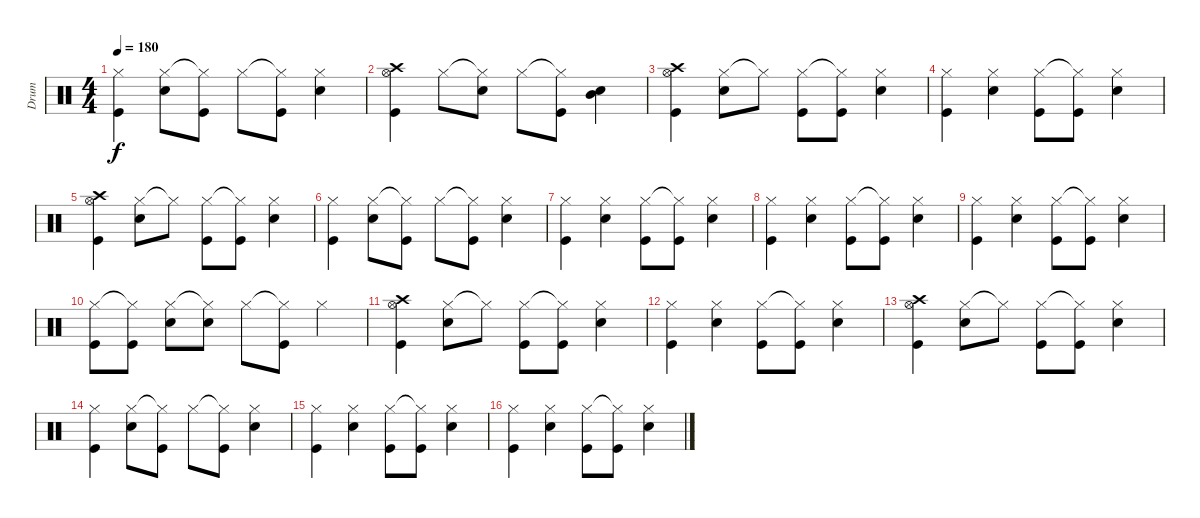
\track ("Drum" "Drum") {instrument percussion}
\staff {score}
\articulation defaults
\ts (4 4)
\tempo 180
\clef neutral
\ks c
("Hi-Hat (closed)" "Kick (hit)").4{dy f} ("Hi-Hat (closed)" "Snare (hit) 2").8 ("Hi-Hat (closed)"{t} "Kick (hit)").8 "Hi-Hat (closed)".8 ("Hi-Hat (closed)"{t} "Kick (hit)").8 ("Hi-Hat (closed)" "Snare (hit) 2").4 |
("Crash high (hit)" "Hi-Hat (open)" "Kick (hit)").4 "Hi-Hat (closed)".8 ("Hi-Hat (closed)"{t} "Snare (hit) 2").8 "Hi-Hat (closed)".8 ("Hi-Hat (closed)"{t} "Kick (hit)").8 ("Snare (hit) 2" "Mid Tom (hit)").4 |
("Crash high (hit)" "Hi-Hat (open)" "Kick (hit)").4 ("Hi-Hat (closed)" "Snare (hit) 2").8 "Hi-Hat (closed)"{t}.8 ("Hi-Hat (closed)" "Kick (hit)").8 ("Hi-Hat (closed)"{t} "Kick (hit)").8 ("Hi-Hat (closed)" "Snare (hit) 2").4 |
("Hi-Hat (closed)" "Kick (hit)").4 ("Hi-Hat (closed)" "Snare (hit) 2").4 ("Hi-Hat (closed)" "Kick (hit)").8 ("Hi-Hat (closed)"{t} "Kick (hit)").8 ("Hi-Hat (closed)" "Snare (hit) 2").4 |
("Crash high (hit)" "Hi-Hat (open)" "Kick (hit)").4 ("Hi-Hat (closed)" "Snare (hit) 2").8 "Hi-Hat (closed)"{t}.8 ("Hi-Hat (closed)" "Kick (hit)").8 ("Hi-Hat (closed)"{t} "Kick (hit)").8 ("Hi-Hat (closed)" "Snare (hit) 2").4 |
("Hi-Hat (closed)" "Kick (hit)").4 ("Hi-Hat (closed)" "Snare (hit) 2").8 ("Hi-Hat (closed)"{t} "Kick (hit)").8 "Hi-Hat (closed)".8 ("Hi-Hat (closed)"{t} "Kick (hit)").8 ("Hi-Hat (closed)" "Snare (hit) 2").4 |
("Hi-Hat (closed)" "Kick (hit)").4 ("Hi-Hat (closed)" "Snare (hit) 2").4 ("Hi-Hat (closed)" "Kick (hit)").8 ("Hi-Hat (closed)"{t} "Kick (hit)").8 ("Hi-Hat (closed)" "Snare (hit) 2").4 |
("Hi-Hat (closed)" "Kick (hit)").4 ("Hi-Hat (closed)" "Snare (hit) 2").4 ("Hi-Hat (closed)" "Kick (hit)").8 ("Hi-Hat (closed)"{t} "Kick (hit)").8 ("Hi-Hat (closed)" "Snare (hit) 2").4 |
("Hi-Hat (closed)" "Kick (hit)").4 ("Hi-Hat (closed)" "Snare (hit) 2").4 ("Hi-Hat (closed)" "Kick (hit)").8 ("Hi-Hat (closed)"{t} "Kick (hit)").8 ("Hi-Hat (closed)" "Snare (hit) 2").4 |
("Hi-Hat (closed)" "Kick (hit)").8 ("Hi-Hat (closed)"{t} "Kick (hit)").8 ("Hi-Hat (closed)" "Snare (hit) 2").8 ("Hi-Hat (closed)"{t} "Snare (hit) 2").8 "Hi-Hat (closed)".8 ("Hi-Hat (closed)"{t} "Kick (hit)").8 "Hi-Hat (closed)".4 |
("Crash high (hit)" "Hi-Hat (open)" "Kick (hit)").4 ("Hi-Hat (closed)" "Snare (hit) 2").8 "Hi-Hat (closed)"{t}.8 ("Hi-Hat (closed)" "Kick (hit)").8 ("Hi-Hat (closed)"{t} "Kick (hit)").8 ("Hi-Hat (closed)" "Snare (hit) 2").4 |
("Hi-Hat (closed)" "Kick (hit)").4 ("Hi-Hat (closed)" "Snare (hit) 2").4 ("Hi-Hat (closed)" "Kick (hit)").8 ("Hi-Hat (closed)"{t} "Kick (hit)").8 ("Hi-Hat (closed)" "Snare (hit) 2").4 |
("Crash high (hit)" "Hi-Hat (open)" "Kick (hit)").4 ("Hi-Hat (closed)" "Snare (hit) 2").8 "Hi-Hat (closed)"{t}.8 ("Hi-Hat (closed)" "Kick (hit)").8 ("Hi-Hat (closed)"{t} "Kick (hit)").8 ("Hi-Hat (closed)" "Snare (hit) 2").4 |
("Hi-Hat (closed)" "Kick (hit)").4 ("Hi-Hat (closed)" "Snare (hit) 2").8 ("Hi-Hat (closed)"{t} "Kick (hit)").8 "Hi-Hat (closed)".8 ("Hi-Hat (closed)"{t} "Kick (hit)").8 ("Hi-Hat (closed)" "Snare (hit) 2").4 |
("Hi-Hat (closed)" "Kick (hit)").4 ("Hi-Hat (closed)" "Snare (hit) 2").4 ("Hi-Hat (closed)" "Kick (hit)").8 ("Hi-Hat (closed)"{t} "Kick (hit)").8 ("Hi-Hat (closed)" "Snare (hit) 2").4 |
("Hi-Hat (closed)" "Kick (hit)").4 ("Hi-Hat (closed)" "Snare (hit) 2").4 ("Hi-Hat (closed)" "Kick (hit)").8 ("Hi-Hat (closed)"{t} "Kick (hit)").8 ("Hi-Hat (closed)" "Snare (hit) 2").4
